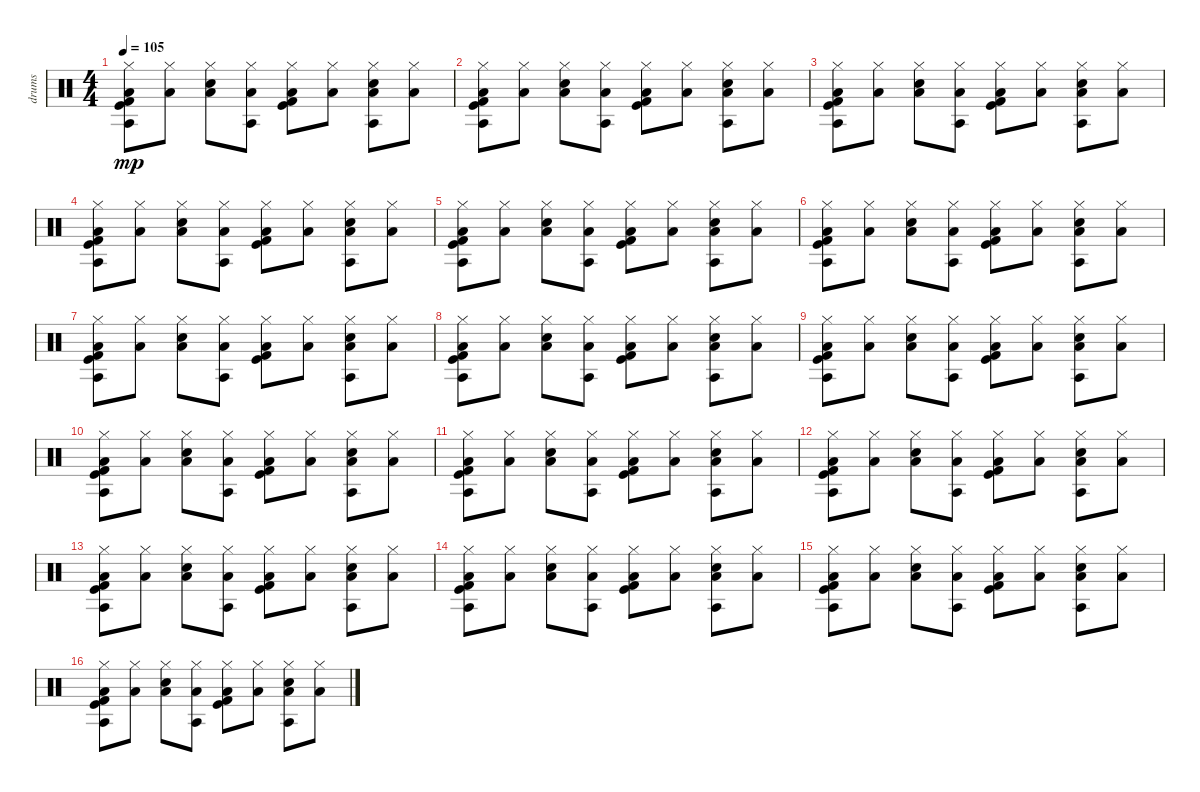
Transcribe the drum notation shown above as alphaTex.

\track ("drums" "drums") {instrument percussion}
\staff {score}
\articulation defaults
\ts (4 4)
\tempo 105
\clef neutral
\ks c
("Hi-Hat (closed)" "Agogo tow (hit)" "Kick (hit)" "Kick (hit) 2" "Low Floor Tom (hit)").8{dy mp} ("Hi-Hat (closed)" "Low Floor Tom (hit)").8 ("Electric Snare (hit)" "Hi-Hat (closed)" "Low Floor Tom (hit)").8 ("Agogo tow (hit)" "Hi-Hat (closed)" "Low Floor Tom (hit)").8 ("Hi-Hat (closed)" "Kick (hit)" "Kick (hit) 2" "Low Floor Tom (hit)").8 ("Hi-Hat (closed)" "Low Floor Tom (hit)").8 ("Agogo tow (hit)" "Hi-Hat (closed)" "Electric Snare (hit)" "Low Floor Tom (hit)").8 ("Hi-Hat (closed)" "Low Floor Tom (hit)").8 |
("Kick (hit)" "Kick (hit) 2" "Agogo tow (hit)" "Hi-Hat (closed)" "Low Floor Tom (hit)").8 ("Hi-Hat (closed)" "Low Floor Tom (hit)").8 ("Hi-Hat (closed)" "Electric Snare (hit)" "Low Floor Tom (hit)").8 ("Agogo tow (hit)" "Hi-Hat (closed)" "Low Floor Tom (hit)").8 ("Kick (hit)" "Kick (hit) 2" "Hi-Hat (closed)" "Low Floor Tom (hit)").8 ("Hi-Hat (closed)" "Low Floor Tom (hit)").8 ("Agogo tow (hit)" "Hi-Hat (closed)" "Electric Snare (hit)" "Low Floor Tom (hit)").8 ("Hi-Hat (closed)" "Low Floor Tom (hit)").8 |
("Kick (hit)" "Kick (hit) 2" "Hi-Hat (closed)" "Agogo tow (hit)" "Low Floor Tom (hit)").8 ("Hi-Hat (closed)" "Low Floor Tom (hit)").8 ("Hi-Hat (closed)" "Electric Snare (hit)" "Low Floor Tom (hit)").8 ("Hi-Hat (closed)" "Agogo tow (hit)" "Low Floor Tom (hit)").8 ("Kick (hit)" "Kick (hit) 2" "Hi-Hat (closed)" "Low Floor Tom (hit)").8 ("Hi-Hat (closed)" "Low Floor Tom (hit)").8 ("Hi-Hat (closed)" "Agogo tow (hit)" "Electric Snare (hit)" "Low Floor Tom (hit)").8 ("Hi-Hat (closed)" "Low Floor Tom (hit)").8 |
("Kick (hit)" "Kick (hit) 2" "Agogo tow (hit)" "Hi-Hat (closed)" "Low Floor Tom (hit)").8 ("Hi-Hat (closed)" "Low Floor Tom (hit)").8 ("Hi-Hat (closed)" "Electric Snare (hit)" "Low Floor Tom (hit)").8 ("Agogo tow (hit)" "Hi-Hat (closed)" "Low Floor Tom (hit)").8 ("Kick (hit)" "Kick (hit) 2" "Hi-Hat (closed)" "Low Floor Tom (hit)").8 ("Hi-Hat (closed)" "Low Floor Tom (hit)").8 ("Agogo tow (hit)" "Hi-Hat (closed)" "Electric Snare (hit)" "Low Floor Tom (hit)").8 ("Hi-Hat (closed)" "Low Floor Tom (hit)").8 |
("Kick (hit)" "Kick (hit) 2" "Agogo tow (hit)" "Hi-Hat (closed)" "Low Floor Tom (hit)").8 ("Hi-Hat (closed)" "Low Floor Tom (hit)").8 ("Hi-Hat (closed)" "Electric Snare (hit)" "Low Floor Tom (hit)").8 ("Agogo tow (hit)" "Hi-Hat (closed)" "Low Floor Tom (hit)").8 ("Kick (hit)" "Kick (hit) 2" "Hi-Hat (closed)" "Low Floor Tom (hit)").8 ("Hi-Hat (closed)" "Low Floor Tom (hit)").8 ("Agogo tow (hit)" "Hi-Hat (closed)" "Electric Snare (hit)" "Low Floor Tom (hit)").8 ("Hi-Hat (closed)" "Low Floor Tom (hit)").8 |
("Kick (hit)" "Kick (hit) 2" "Agogo tow (hit)" "Hi-Hat (closed)" "Low Floor Tom (hit)").8 ("Hi-Hat (closed)" "Low Floor Tom (hit)").8 ("Hi-Hat (closed)" "Electric Snare (hit)" "Low Floor Tom (hit)").8 ("Agogo tow (hit)" "Hi-Hat (closed)" "Low Floor Tom (hit)").8 ("Kick (hit)" "Kick (hit) 2" "Hi-Hat (closed)" "Low Floor Tom (hit)").8 ("Hi-Hat (closed)" "Low Floor Tom (hit)").8 ("Agogo tow (hit)" "Hi-Hat (closed)" "Electric Snare (hit)" "Low Floor Tom (hit)").8 ("Hi-Hat (closed)" "Low Floor Tom (hit)").8 |
("Kick (hit)" "Kick (hit) 2" "Hi-Hat (closed)" "Agogo tow (hit)" "Low Floor Tom (hit)").8 ("Hi-Hat (closed)" "Low Floor Tom (hit)").8 ("Hi-Hat (closed)" "Electric Snare (hit)" "Low Floor Tom (hit)").8 ("Hi-Hat (closed)" "Agogo tow (hit)" "Low Floor Tom (hit)").8 ("Kick (hit)" "Kick (hit) 2" "Hi-Hat (closed)" "Low Floor Tom (hit)").8 ("Hi-Hat (closed)" "Low Floor Tom (hit)").8 ("Hi-Hat (closed)" "Agogo tow (hit)" "Electric Snare (hit)" "Low Floor Tom (hit)").8 ("Hi-Hat (closed)" "Low Floor Tom (hit)").8 |
("Kick (hit)" "Kick (hit) 2" "Agogo tow (hit)" "Hi-Hat (closed)" "Low Floor Tom (hit)").8 ("Hi-Hat (closed)" "Low Floor Tom (hit)").8 ("Hi-Hat (closed)" "Electric Snare (hit)" "Low Floor Tom (hit)").8 ("Agogo tow (hit)" "Hi-Hat (closed)" "Low Floor Tom (hit)").8 ("Kick (hit)" "Kick (hit) 2" "Hi-Hat (closed)" "Low Floor Tom (hit)").8 ("Hi-Hat (closed)" "Low Floor Tom (hit)").8 ("Agogo tow (hit)" "Hi-Hat (closed)" "Electric Snare (hit)" "Low Floor Tom (hit)").8 ("Hi-Hat (closed)" "Low Floor Tom (hit)").8 |
("Kick (hit)" "Kick (hit) 2" "Hi-Hat (closed)" "Agogo tow (hit)" "Low Floor Tom (hit)").8 ("Hi-Hat (closed)" "Low Floor Tom (hit)").8 ("Hi-Hat (closed)" "Electric Snare (hit)" "Low Floor Tom (hit)").8 ("Hi-Hat (closed)" "Agogo tow (hit)" "Low Floor Tom (hit)").8 ("Kick (hit)" "Kick (hit) 2" "Hi-Hat (closed)" "Low Floor Tom (hit)").8 ("Hi-Hat (closed)" "Low Floor Tom (hit)").8 ("Hi-Hat (closed)" "Agogo tow (hit)" "Electric Snare (hit)" "Low Floor Tom (hit)").8 ("Hi-Hat (closed)" "Low Floor Tom (hit)").8 |
("Kick (hit)" "Kick (hit) 2" "Agogo tow (hit)" "Hi-Hat (closed)" "Low Floor Tom (hit)").8 ("Hi-Hat (closed)" "Low Floor Tom (hit)").8 ("Hi-Hat (closed)" "Electric Snare (hit)" "Low Floor Tom (hit)").8 ("Agogo tow (hit)" "Hi-Hat (closed)" "Low Floor Tom (hit)").8 ("Kick (hit)" "Kick (hit) 2" "Hi-Hat (closed)" "Low Floor Tom (hit)").8 ("Hi-Hat (closed)" "Low Floor Tom (hit)").8 ("Agogo tow (hit)" "Hi-Hat (closed)" "Electric Snare (hit)" "Low Floor Tom (hit)").8 ("Hi-Hat (closed)" "Low Floor Tom (hit)").8 |
("Kick (hit)" "Kick (hit) 2" "Hi-Hat (closed)" "Agogo tow (hit)" "Low Floor Tom (hit)").8 ("Hi-Hat (closed)" "Low Floor Tom (hit)").8 ("Hi-Hat (closed)" "Electric Snare (hit)" "Low Floor Tom (hit)").8 ("Hi-Hat (closed)" "Agogo tow (hit)" "Low Floor Tom (hit)").8 ("Kick (hit)" "Kick (hit) 2" "Hi-Hat (closed)" "Low Floor Tom (hit)").8 ("Hi-Hat (closed)" "Low Floor Tom (hit)").8 ("Hi-Hat (closed)" "Agogo tow (hit)" "Electric Snare (hit)" "Low Floor Tom (hit)").8 ("Hi-Hat (closed)" "Low Floor Tom (hit)").8 |
("Kick (hit)" "Kick (hit) 2" "Hi-Hat (closed)" "Agogo tow (hit)" "Low Floor Tom (hit)").8 ("Hi-Hat (closed)" "Low Floor Tom (hit)").8 ("Hi-Hat (closed)" "Electric Snare (hit)" "Low Floor Tom (hit)").8 ("Hi-Hat (closed)" "Agogo tow (hit)" "Low Floor Tom (hit)").8 ("Kick (hit)" "Kick (hit) 2" "Hi-Hat (closed)" "Low Floor Tom (hit)").8 ("Hi-Hat (closed)" "Low Floor Tom (hit)").8 ("Hi-Hat (closed)" "Agogo tow (hit)" "Electric Snare (hit)" "Low Floor Tom (hit)").8 ("Hi-Hat (closed)" "Low Floor Tom (hit)").8 |
("Kick (hit)" "Kick (hit) 2" "Agogo tow (hit)" "Hi-Hat (closed)" "Low Floor Tom (hit)").8 ("Hi-Hat (closed)" "Low Floor Tom (hit)").8 ("Hi-Hat (closed)" "Electric Snare (hit)" "Low Floor Tom (hit)").8 ("Agogo tow (hit)" "Hi-Hat (closed)" "Low Floor Tom (hit)").8 ("Kick (hit)" "Kick (hit) 2" "Hi-Hat (closed)" "Low Floor Tom (hit)").8 ("Hi-Hat (closed)" "Low Floor Tom (hit)").8 ("Agogo tow (hit)" "Hi-Hat (closed)" "Electric Snare (hit)" "Low Floor Tom (hit)").8 ("Hi-Hat (closed)" "Low Floor Tom (hit)").8 |
("Kick (hit)" "Kick (hit) 2" "Hi-Hat (closed)" "Agogo tow (hit)" "Low Floor Tom (hit)").8 ("Hi-Hat (closed)" "Low Floor Tom (hit)").8 ("Hi-Hat (closed)" "Electric Snare (hit)" "Low Floor Tom (hit)").8 ("Hi-Hat (closed)" "Agogo tow (hit)" "Low Floor Tom (hit)").8 ("Kick (hit)" "Kick (hit) 2" "Hi-Hat (closed)" "Low Floor Tom (hit)").8 ("Hi-Hat (closed)" "Low Floor Tom (hit)").8 ("Hi-Hat (closed)" "Agogo tow (hit)" "Electric Snare (hit)" "Low Floor Tom (hit)").8 ("Hi-Hat (closed)" "Low Floor Tom (hit)").8 |
("Kick (hit)" "Kick (hit) 2" "Agogo tow (hit)" "Hi-Hat (closed)" "Low Floor Tom (hit)").8 ("Hi-Hat (closed)" "Low Floor Tom (hit)").8 ("Hi-Hat (closed)" "Electric Snare (hit)" "Low Floor Tom (hit)").8 ("Agogo tow (hit)" "Hi-Hat (closed)" "Low Floor Tom (hit)").8 ("Kick (hit)" "Kick (hit) 2" "Hi-Hat (closed)" "Low Floor Tom (hit)").8 ("Hi-Hat (closed)" "Low Floor Tom (hit)").8 ("Agogo tow (hit)" "Hi-Hat (closed)" "Electric Snare (hit)" "Low Floor Tom (hit)").8 ("Hi-Hat (closed)" "Low Floor Tom (hit)").8 |
("Kick (hit)" "Kick (hit) 2" "Hi-Hat (closed)" "Agogo tow (hit)" "Low Floor Tom (hit)").8 ("Hi-Hat (closed)" "Low Floor Tom (hit)").8 ("Hi-Hat (closed)" "Electric Snare (hit)" "Low Floor Tom (hit)").8 ("Hi-Hat (closed)" "Agogo tow (hit)" "Low Floor Tom (hit)").8 ("Kick (hit)" "Kick (hit) 2" "Hi-Hat (closed)" "Low Floor Tom (hit)").8 ("Hi-Hat (closed)" "Low Floor Tom (hit)").8 ("Hi-Hat (closed)" "Agogo tow (hit)" "Electric Snare (hit)" "Low Floor Tom (hit)").8 ("Hi-Hat (closed)" "Low Floor Tom (hit)").8
